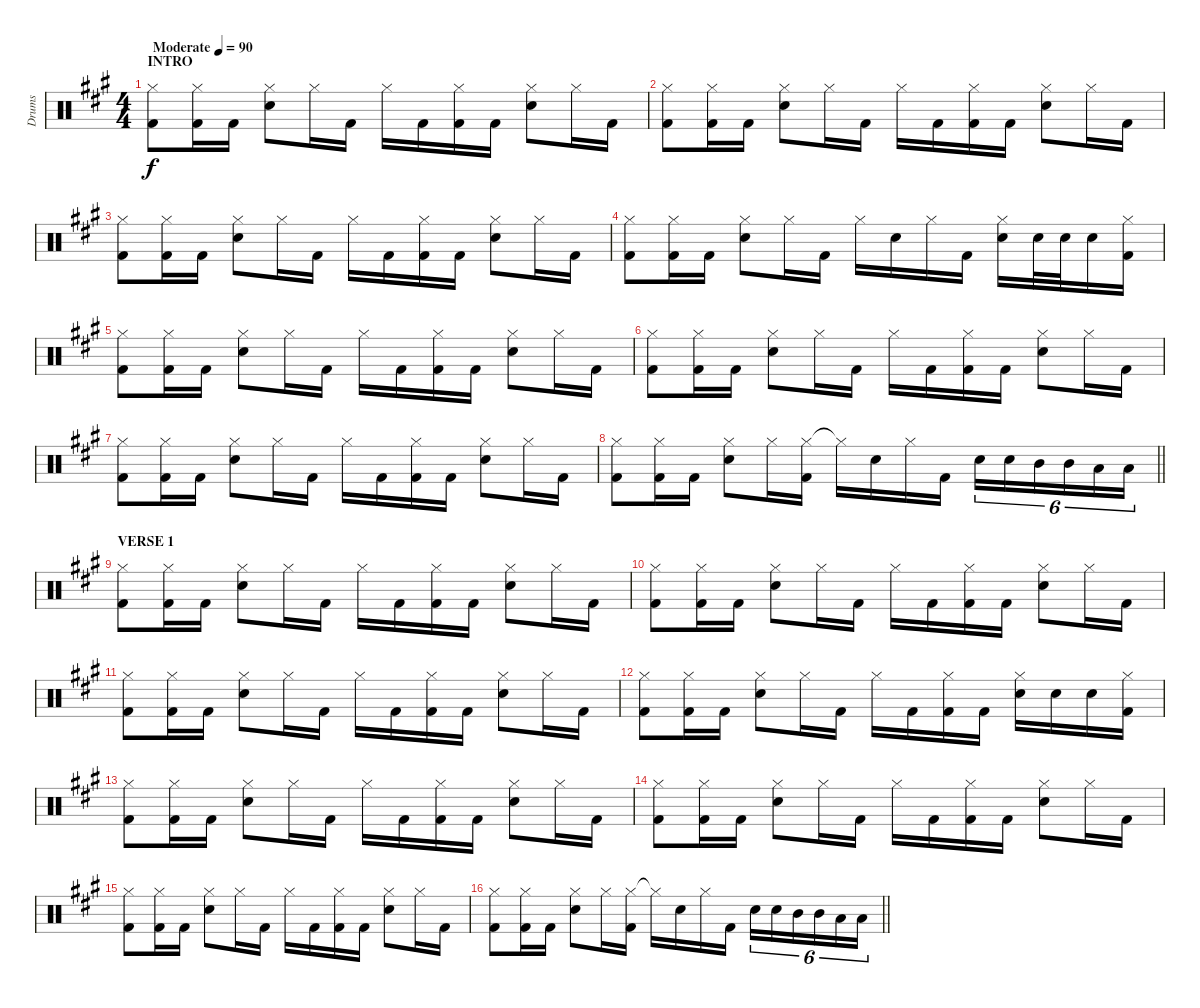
\track ("Drums" "Drums") {instrument percussion}
\staff {score}
\articulation defaults
\ts (4 4)
\section ("" "INTRO")
\tempo (90 "Moderate")
\clef neutral
\ks f#minor
("Hi-Hat (closed)" "Kick (hit) 2").8{dy f} ("Hi-Hat (closed)" "Kick (hit) 2").16 "Kick (hit) 2".16 ("Hi-Hat (closed)" "Electric Snare (hit)").8 "Hi-Hat (closed)".16 "Kick (hit) 2".16 "Hi-Hat (closed)".16 "Kick (hit) 2".16 ("Hi-Hat (closed)" "Kick (hit) 2").16 "Kick (hit) 2".16 ("Hi-Hat (closed)" "Electric Snare (hit)").8 "Hi-Hat (closed)".16 "Kick (hit) 2".16 |
("Hi-Hat (closed)" "Kick (hit) 2").8 ("Hi-Hat (closed)" "Kick (hit) 2").16 "Kick (hit) 2".16 ("Hi-Hat (closed)" "Electric Snare (hit)").8 "Hi-Hat (closed)".16 "Kick (hit) 2".16 "Hi-Hat (closed)".16 "Kick (hit) 2".16 ("Hi-Hat (closed)" "Kick (hit) 2").16 "Kick (hit) 2".16 ("Hi-Hat (closed)" "Electric Snare (hit)").8 "Hi-Hat (closed)".16 "Kick (hit) 2".16 |
("Hi-Hat (closed)" "Kick (hit) 2").8 ("Hi-Hat (closed)" "Kick (hit) 2").16 "Kick (hit) 2".16 ("Hi-Hat (closed)" "Electric Snare (hit)").8 "Hi-Hat (closed)".16 "Kick (hit) 2".16 "Hi-Hat (closed)".16 "Kick (hit) 2".16 ("Hi-Hat (closed)" "Kick (hit) 2").16 "Kick (hit) 2".16 ("Hi-Hat (closed)" "Electric Snare (hit)").8 "Hi-Hat (closed)".16 "Kick (hit) 2".16 |
("Hi-Hat (closed)" "Kick (hit) 2").8 ("Hi-Hat (closed)" "Kick (hit) 2").16 "Kick (hit) 2".16 ("Hi-Hat (closed)" "Electric Snare (hit)").8 "Hi-Hat (closed)".16 "Kick (hit) 2".16 "Hi-Hat (closed)".16 "Electric Snare (hit)".16 "Hi-Hat (closed)".16 "Kick (hit) 2".16 ("Hi-Hat (closed)" "Electric Snare (hit)").16 "Electric Snare (hit)".32 "Electric Snare (hit)".32{beam splitsecondary} "Electric Snare (hit)".16 ("Hi-Hat (closed)" "Kick (hit) 2").16 |
("Hi-Hat (closed)" "Kick (hit) 2").8 ("Hi-Hat (closed)" "Kick (hit) 2").16 "Kick (hit) 2".16 ("Hi-Hat (closed)" "Electric Snare (hit)").8 "Hi-Hat (closed)".16 "Kick (hit) 2".16 "Hi-Hat (closed)".16 "Kick (hit) 2".16 ("Hi-Hat (closed)" "Kick (hit) 2").16 "Kick (hit) 2".16 ("Hi-Hat (closed)" "Electric Snare (hit)").8 "Hi-Hat (closed)".16 "Kick (hit) 2".16 |
("Hi-Hat (closed)" "Kick (hit) 2").8 ("Hi-Hat (closed)" "Kick (hit) 2").16 "Kick (hit) 2".16 ("Hi-Hat (closed)" "Electric Snare (hit)").8 "Hi-Hat (closed)".16 "Kick (hit) 2".16 "Hi-Hat (closed)".16 "Kick (hit) 2".16 ("Hi-Hat (closed)" "Kick (hit) 2").16 "Kick (hit) 2".16 ("Hi-Hat (closed)" "Electric Snare (hit)").8 "Hi-Hat (closed)".16 "Kick (hit) 2".16 |
("Hi-Hat (closed)" "Kick (hit) 2").8 ("Hi-Hat (closed)" "Kick (hit) 2").16 "Kick (hit) 2".16 ("Hi-Hat (closed)" "Electric Snare (hit)").8 "Hi-Hat (closed)".16 "Kick (hit) 2".16 "Hi-Hat (closed)".16 "Kick (hit) 2".16 ("Hi-Hat (closed)" "Kick (hit) 2").16 "Kick (hit) 2".16 ("Hi-Hat (closed)" "Electric Snare (hit)").8 "Hi-Hat (closed)".16 "Kick (hit) 2".16 |
\barLineRight lightlight
("Hi-Hat (closed)" "Kick (hit) 2").8 ("Hi-Hat (closed)" "Kick (hit) 2").16 "Kick (hit) 2".16 ("Hi-Hat (closed)" "Electric Snare (hit)").8 "Hi-Hat (closed)".16 ("Hi-Hat (closed)" "Kick (hit) 2").16 "Hi-Hat (closed)"{t}.16 "Electric Snare (hit)".16 "Hi-Hat (closed)".16 "Kick (hit) 2".16 "Electric Snare (hit)".16{tu (6 4)} "Electric Snare (hit)".16{tu (6 4)} "Mid Tom (hit)".16{tu (6 4)} "Mid Tom (hit)".16{tu (6 4)} "Low Tom (hit)".16{tu (6 4)} "Low Tom (hit)".16{tu (6 4)} |
\section ("" "VERSE 1")
("Hi-Hat (closed)" "Kick (hit) 2").8 ("Hi-Hat (closed)" "Kick (hit) 2").16 "Kick (hit) 2".16 ("Hi-Hat (closed)" "Electric Snare (hit)").8 "Hi-Hat (closed)".16 "Kick (hit) 2".16 "Hi-Hat (closed)".16 "Kick (hit) 2".16 ("Hi-Hat (closed)" "Kick (hit) 2").16 "Kick (hit) 2".16 ("Hi-Hat (closed)" "Electric Snare (hit)").8 "Hi-Hat (closed)".16 "Kick (hit) 2".16 |
("Hi-Hat (closed)" "Kick (hit) 2").8 ("Hi-Hat (closed)" "Kick (hit) 2").16 "Kick (hit) 2".16 ("Hi-Hat (closed)" "Electric Snare (hit)").8 "Hi-Hat (closed)".16 "Kick (hit) 2".16 "Hi-Hat (closed)".16 "Kick (hit) 2".16 ("Hi-Hat (closed)" "Kick (hit) 2").16 "Kick (hit) 2".16 ("Hi-Hat (closed)" "Electric Snare (hit)").8 "Hi-Hat (closed)".16 "Kick (hit) 2".16 |
("Hi-Hat (closed)" "Kick (hit) 2").8 ("Hi-Hat (closed)" "Kick (hit) 2").16 "Kick (hit) 2".16 ("Hi-Hat (closed)" "Electric Snare (hit)").8 "Hi-Hat (closed)".16 "Kick (hit) 2".16 "Hi-Hat (closed)".16 "Kick (hit) 2".16 ("Hi-Hat (closed)" "Kick (hit) 2").16 "Kick (hit) 2".16 ("Hi-Hat (closed)" "Electric Snare (hit)").8 "Hi-Hat (closed)".16 "Kick (hit) 2".16 |
("Hi-Hat (closed)" "Kick (hit) 2").8 ("Hi-Hat (closed)" "Kick (hit) 2").16 "Kick (hit) 2".16 ("Hi-Hat (closed)" "Electric Snare (hit)").8 "Hi-Hat (closed)".16 "Kick (hit) 2".16 "Hi-Hat (closed)".16 "Kick (hit) 2".16 ("Hi-Hat (closed)" "Kick (hit) 2").16 "Kick (hit) 2".16 ("Hi-Hat (closed)" "Electric Snare (hit)").16 "Electric Snare (hit)".16 "Electric Snare (hit)".16 ("Hi-Hat (closed)" "Kick (hit) 2").16 |
("Hi-Hat (closed)" "Kick (hit) 2").8 ("Hi-Hat (closed)" "Kick (hit) 2").16 "Kick (hit) 2".16 ("Hi-Hat (closed)" "Electric Snare (hit)").8 "Hi-Hat (closed)".16 "Kick (hit) 2".16 "Hi-Hat (closed)".16 "Kick (hit) 2".16 ("Hi-Hat (closed)" "Kick (hit) 2").16 "Kick (hit) 2".16 ("Hi-Hat (closed)" "Electric Snare (hit)").8 "Hi-Hat (closed)".16 "Kick (hit) 2".16 |
("Hi-Hat (closed)" "Kick (hit) 2").8 ("Hi-Hat (closed)" "Kick (hit) 2").16 "Kick (hit) 2".16 ("Hi-Hat (closed)" "Electric Snare (hit)").8 "Hi-Hat (closed)".16 "Kick (hit) 2".16 "Hi-Hat (closed)".16 "Kick (hit) 2".16 ("Hi-Hat (closed)" "Kick (hit) 2").16 "Kick (hit) 2".16 ("Hi-Hat (closed)" "Electric Snare (hit)").8 "Hi-Hat (closed)".16 "Kick (hit) 2".16 |
("Hi-Hat (closed)" "Kick (hit) 2").8 ("Hi-Hat (closed)" "Kick (hit) 2").16 "Kick (hit) 2".16 ("Hi-Hat (closed)" "Electric Snare (hit)").8 "Hi-Hat (closed)".16 "Kick (hit) 2".16 "Hi-Hat (closed)".16 "Kick (hit) 2".16 ("Hi-Hat (closed)" "Kick (hit) 2").16 "Kick (hit) 2".16 ("Hi-Hat (closed)" "Electric Snare (hit)").8 "Hi-Hat (closed)".16 "Kick (hit) 2".16 |
\barLineRight lightlight
("Hi-Hat (closed)" "Kick (hit) 2").8 ("Hi-Hat (closed)" "Kick (hit) 2").16 "Kick (hit) 2".16 ("Hi-Hat (closed)" "Electric Snare (hit)").8 "Hi-Hat (closed)".16 ("Hi-Hat (closed)" "Kick (hit) 2").16 "Hi-Hat (closed)"{t}.16 "Electric Snare (hit)".16 "Hi-Hat (closed)".16 "Kick (hit) 2".16 "Electric Snare (hit)".16{tu (6 4)} "Electric Snare (hit)".16{tu (6 4)} "Mid Tom (hit)".16{tu (6 4)} "Mid Tom (hit)".16{tu (6 4)} "Low Tom (hit)".16{tu (6 4)} "Low Tom (hit)".16{tu (6 4)}
